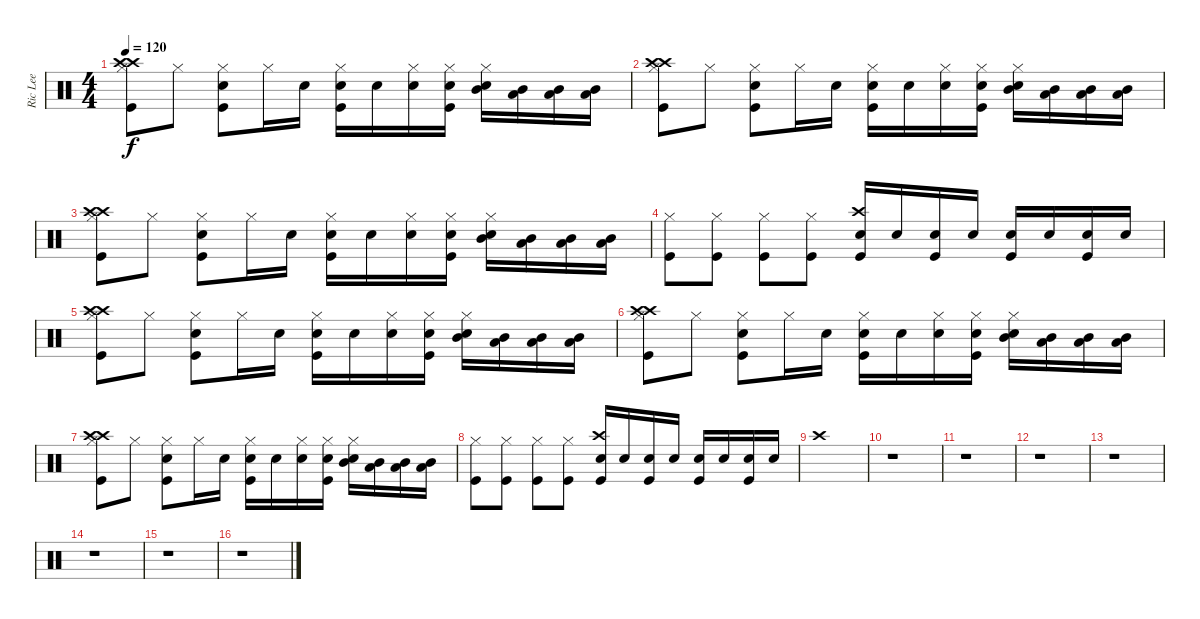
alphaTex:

\track ("Ric Lee" "Ric Lee") {instrument percussion}
\staff {score}
\articulation defaults
\ts (4 4)
\tempo 120
\clef neutral
\ks c
("Kick (hit)" "Hi-Hat (closed)" "Crash high (hit)" "Crash high (hit)").8{dy f} "Hi-Hat (closed)".8 ("Kick (hit)" "Snare (hit) 2" "Hi-Hat (closed)").8 "Hi-Hat (closed)".16 "Snare (hit) 2".16 ("Kick (hit)" "Snare (hit) 2" "Hi-Hat (closed)").16 "Snare (hit) 2".16 ("Snare (hit) 2" "Hi-Hat (closed)").16 ("Kick (hit)" "Snare (hit) 2" "Hi-Hat (closed)").16 ("Mid Tom (hit)" "Snare (hit) 2" "Hi-Hat (closed)").16 ("Mid Tom (hit)" "Low Tom (hit)").16 ("Mid Tom (hit)" "Low Tom (hit)").16 ("Mid Tom (hit)" "Low Tom (hit)").16 |
("Kick (hit)" "Hi-Hat (closed)" "Crash high (hit)" "Crash high (hit)").8 "Hi-Hat (closed)".8 ("Kick (hit)" "Snare (hit) 2" "Hi-Hat (closed)").8 "Hi-Hat (closed)".16 "Snare (hit) 2".16 ("Kick (hit)" "Snare (hit) 2" "Hi-Hat (closed)").16 "Snare (hit) 2".16 ("Snare (hit) 2" "Hi-Hat (closed)").16 ("Kick (hit)" "Snare (hit) 2" "Hi-Hat (closed)").16 ("Mid Tom (hit)" "Snare (hit) 2" "Hi-Hat (closed)").16 ("Mid Tom (hit)" "Low Tom (hit)").16 ("Mid Tom (hit)" "Low Tom (hit)").16 ("Mid Tom (hit)" "Low Tom (hit)").16 |
("Kick (hit)" "Hi-Hat (closed)" "Crash high (hit)" "Crash high (hit)").8 "Hi-Hat (closed)".8 ("Kick (hit)" "Snare (hit) 2" "Hi-Hat (closed)").8 "Hi-Hat (closed)".16 "Snare (hit) 2".16 ("Kick (hit)" "Snare (hit) 2" "Hi-Hat (closed)").16 "Snare (hit) 2".16 ("Snare (hit) 2" "Hi-Hat (closed)").16 ("Kick (hit)" "Snare (hit) 2" "Hi-Hat (closed)").16 ("Mid Tom (hit)" "Snare (hit) 2" "Hi-Hat (closed)").16 ("Mid Tom (hit)" "Low Tom (hit)").16 ("Mid Tom (hit)" "Low Tom (hit)").16 ("Mid Tom (hit)" "Low Tom (hit)").16 |
("Kick (hit)" "Hi-Hat (closed)").8 ("Kick (hit)" "Hi-Hat (closed)").8 ("Kick (hit)" "Hi-Hat (closed)").8 ("Kick (hit)" "Hi-Hat (closed)").8 ("Kick (hit)" "Snare (hit) 2" "Crash high (hit)").16 "Snare (hit) 2".16 ("Kick (hit)" "Snare (hit) 2").16 "Snare (hit) 2".16 ("Kick (hit)" "Snare (hit) 2").16 "Snare (hit) 2".16 ("Kick (hit)" "Snare (hit) 2").16 "Snare (hit) 2".16 |
("Kick (hit)" "Hi-Hat (closed)" "Crash high (hit)" "Crash high (hit)").8 "Hi-Hat (closed)".8 ("Kick (hit)" "Snare (hit) 2" "Hi-Hat (closed)").8 "Hi-Hat (closed)".16 "Snare (hit) 2".16 ("Kick (hit)" "Snare (hit) 2" "Hi-Hat (closed)").16 "Snare (hit) 2".16 ("Snare (hit) 2" "Hi-Hat (closed)").16 ("Kick (hit)" "Snare (hit) 2" "Hi-Hat (closed)").16 ("Mid Tom (hit)" "Snare (hit) 2" "Hi-Hat (closed)").16 ("Mid Tom (hit)" "Low Tom (hit)").16 ("Mid Tom (hit)" "Low Tom (hit)").16 ("Mid Tom (hit)" "Low Tom (hit)").16 |
("Kick (hit)" "Hi-Hat (closed)" "Crash high (hit)" "Crash high (hit)").8 "Hi-Hat (closed)".8 ("Kick (hit)" "Snare (hit) 2" "Hi-Hat (closed)").8 "Hi-Hat (closed)".16 "Snare (hit) 2".16 ("Kick (hit)" "Snare (hit) 2" "Hi-Hat (closed)").16 "Snare (hit) 2".16 ("Snare (hit) 2" "Hi-Hat (closed)").16 ("Kick (hit)" "Snare (hit) 2" "Hi-Hat (closed)").16 ("Mid Tom (hit)" "Snare (hit) 2" "Hi-Hat (closed)").16 ("Mid Tom (hit)" "Low Tom (hit)").16 ("Mid Tom (hit)" "Low Tom (hit)").16 ("Mid Tom (hit)" "Low Tom (hit)").16 |
("Kick (hit)" "Hi-Hat (closed)" "Crash high (hit)" "Crash high (hit)").8 "Hi-Hat (closed)".8 ("Kick (hit)" "Snare (hit) 2" "Hi-Hat (closed)").8 "Hi-Hat (closed)".16 "Snare (hit) 2".16 ("Kick (hit)" "Snare (hit) 2" "Hi-Hat (closed)").16 "Snare (hit) 2".16 ("Snare (hit) 2" "Hi-Hat (closed)").16 ("Kick (hit)" "Snare (hit) 2" "Hi-Hat (closed)").16 ("Mid Tom (hit)" "Snare (hit) 2" "Hi-Hat (closed)").16 ("Mid Tom (hit)" "Low Tom (hit)").16 ("Mid Tom (hit)" "Low Tom (hit)").16 ("Mid Tom (hit)" "Low Tom (hit)").16 |
("Kick (hit)" "Hi-Hat (closed)").8 ("Kick (hit)" "Hi-Hat (closed)").8 ("Kick (hit)" "Hi-Hat (closed)").8 ("Kick (hit)" "Hi-Hat (closed)").8 ("Kick (hit)" "Snare (hit) 2" "Crash high (hit)").16 "Snare (hit) 2".16 ("Kick (hit)" "Snare (hit) 2").16 "Snare (hit) 2".16 ("Kick (hit)" "Snare (hit) 2").16 "Snare (hit) 2".16 ("Kick (hit)" "Snare (hit) 2").16 "Snare (hit) 2".16 |
"Crash high (hit)".1 |
r.1 |
r.1 |
r.1 |
r.1 |
r.1 |
r.1 |
r.1
